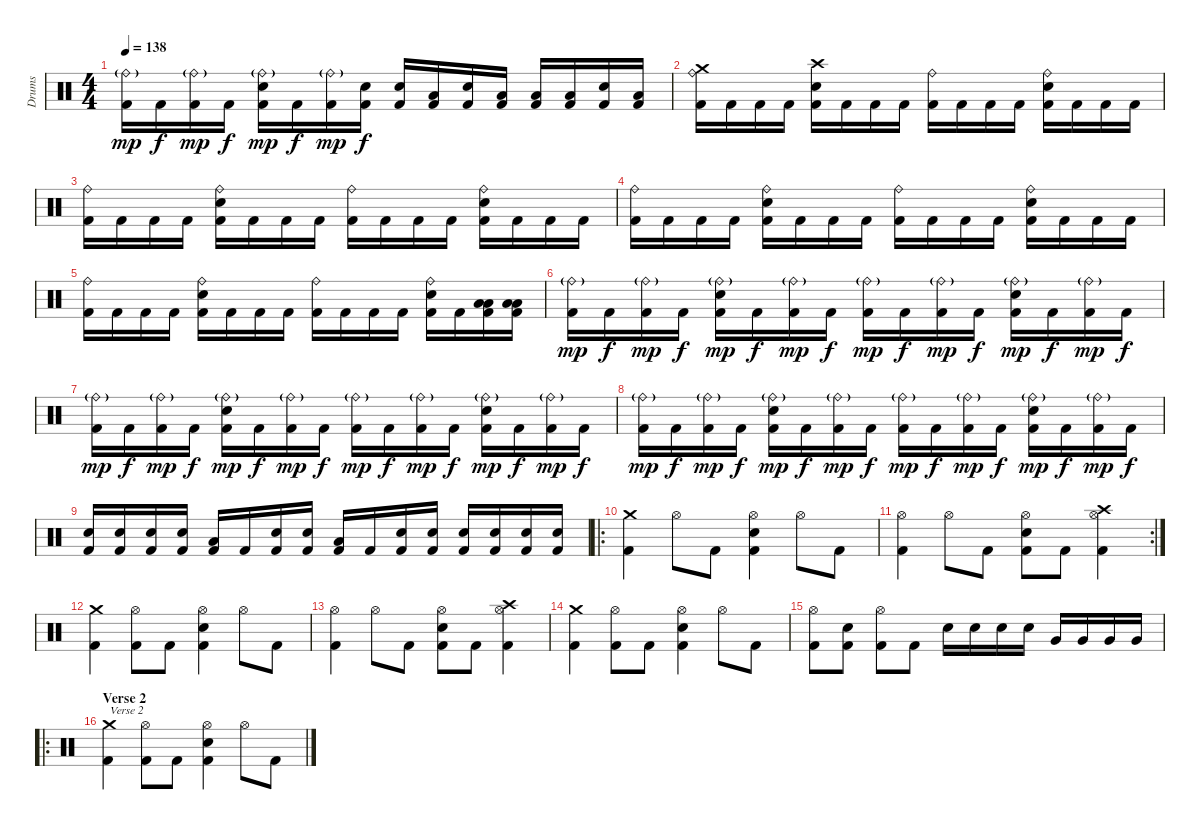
\track ("Drums" "Drums") {instrument percussion}
\staff {score}
\articulation defaults
\ts (4 4)
\tempo 138
\clef neutral
\ks c
("Ride (bell)"{g} "Kick (hit) 2").16{dy mp} "Kick (hit) 2".16{dy f} ("Ride (bell)"{g} "Kick (hit) 2").16{dy mp} "Kick (hit) 2".16{dy f} ("Ride (bell)"{g} "Electric Snare (hit)" "Kick (hit) 2").16{dy mp} "Kick (hit) 2".16{dy f} ("Ride (bell)"{g} "Kick (hit) 2").16{dy mp} ("Electric Snare (hit)" "Kick (hit) 2").16{dy f} ("Electric Snare (hit)" "Kick (hit) 2").16 ("Low Floor Tom (hit)" "Kick (hit) 2").16 ("Electric Snare (hit)" "Kick (hit) 2").16 ("Low Floor Tom (hit)" "Kick (hit) 2").16 ("Low Floor Tom (hit)" "Kick (hit) 2").16 ("Low Floor Tom (hit)" "Kick (hit) 2").16 ("Electric Snare (hit)" "Kick (hit) 2").16 ("Low Floor Tom (hit)" "Kick (hit) 2").16 |
("Crash medium (hit)" "Ride (bell)" "Kick (hit) 2").16 "Kick (hit) 2".16 "Kick (hit) 2".16 "Kick (hit) 2".16 ("Crash high (hit)" "Electric Snare (hit)" "Kick (hit) 2").16 "Kick (hit) 2".16 "Kick (hit) 2".16 "Kick (hit) 2".16 ("Ride (bell)" "Kick (hit) 2").16 "Kick (hit) 2".16 "Kick (hit) 2".16 "Kick (hit) 2".16 ("Ride (bell)" "Electric Snare (hit)" "Kick (hit) 2").16 "Kick (hit) 2".16 "Kick (hit) 2".16 "Kick (hit) 2".16 |
("Ride (bell)" "Kick (hit) 2").16 "Kick (hit) 2".16 "Kick (hit) 2".16 "Kick (hit) 2".16 ("Ride (bell)" "Electric Snare (hit)" "Kick (hit) 2").16 "Kick (hit) 2".16 "Kick (hit) 2".16 "Kick (hit) 2".16 ("Ride (bell)" "Kick (hit) 2").16 "Kick (hit) 2".16 "Kick (hit) 2".16 "Kick (hit) 2".16 ("Ride (bell)" "Electric Snare (hit)" "Kick (hit) 2").16 "Kick (hit) 2".16 "Kick (hit) 2".16 "Kick (hit) 2".16 |
("Ride (bell)" "Kick (hit) 2").16 "Kick (hit) 2".16 "Kick (hit) 2".16 "Kick (hit) 2".16 ("Ride (bell)" "Electric Snare (hit)" "Kick (hit) 2").16 "Kick (hit) 2".16 "Kick (hit) 2".16 "Kick (hit) 2".16 ("Ride (bell)" "Kick (hit) 2").16 "Kick (hit) 2".16 "Kick (hit) 2".16 "Kick (hit) 2".16 ("Ride (bell)" "Electric Snare (hit)" "Kick (hit) 2").16 "Kick (hit) 2".16 "Kick (hit) 2".16 "Kick (hit) 2".16 |
("Ride (bell)" "Kick (hit) 2").16 "Kick (hit) 2".16 "Kick (hit) 2".16 "Kick (hit) 2".16 ("Ride (bell)" "Electric Snare (hit)" "Kick (hit) 2").16 "Kick (hit) 2".16 "Kick (hit) 2".16 "Kick (hit) 2".16 ("Ride (bell)" "Kick (hit) 2").16 "Kick (hit) 2".16 "Kick (hit) 2".16 "Kick (hit) 2".16 ("Ride (bell)" "Electric Snare (hit)" "Kick (hit) 2").16 "Kick (hit) 2".16 ("Low Floor Tom (hit)" "Low Floor Tom (hit)" "Kick (hit) 2").16 ("Low Floor Tom (hit)" "Low Floor Tom (hit)" "Kick (hit) 2").16 |
("Ride (bell)"{g} "Kick (hit) 2").16{dy mp} "Kick (hit) 2".16{dy f} ("Ride (bell)"{g} "Kick (hit) 2").16{dy mp} "Kick (hit) 2".16{dy f} ("Ride (bell)"{g} "Electric Snare (hit)" "Kick (hit) 2").16{dy mp} "Kick (hit) 2".16{dy f} ("Ride (bell)"{g} "Kick (hit) 2").16{dy mp} "Kick (hit) 2".16{dy f} ("Ride (bell)"{g} "Kick (hit) 2").16{dy mp} "Kick (hit) 2".16{dy f} ("Ride (bell)"{g} "Kick (hit) 2").16{dy mp} "Kick (hit) 2".16{dy f} ("Ride (bell)"{g} "Electric Snare (hit)" "Kick (hit) 2").16{dy mp} "Kick (hit) 2".16{dy f} ("Ride (bell)"{g} "Kick (hit) 2").16{dy mp} "Kick (hit) 2".16{dy f} |
("Ride (bell)"{g} "Kick (hit) 2").16{dy mp} "Kick (hit) 2".16{dy f} ("Ride (bell)"{g} "Kick (hit) 2").16{dy mp} "Kick (hit) 2".16{dy f} ("Ride (bell)"{g} "Electric Snare (hit)" "Kick (hit) 2").16{dy mp} "Kick (hit) 2".16{dy f} ("Ride (bell)"{g} "Kick (hit) 2").16{dy mp} "Kick (hit) 2".16{dy f} ("Ride (bell)"{g} "Kick (hit) 2").16{dy mp} "Kick (hit) 2".16{dy f} ("Ride (bell)"{g} "Kick (hit) 2").16{dy mp} "Kick (hit) 2".16{dy f} ("Ride (bell)"{g} "Electric Snare (hit)" "Kick (hit) 2").16{dy mp} "Kick (hit) 2".16{dy f} ("Ride (bell)"{g} "Kick (hit) 2").16{dy mp} "Kick (hit) 2".16{dy f} |
("Ride (bell)"{g} "Kick (hit) 2").16{dy mp} "Kick (hit) 2".16{dy f} ("Ride (bell)"{g} "Kick (hit) 2").16{dy mp} "Kick (hit) 2".16{dy f} ("Ride (bell)"{g} "Electric Snare (hit)" "Kick (hit) 2").16{dy mp} "Kick (hit) 2".16{dy f} ("Ride (bell)"{g} "Kick (hit) 2").16{dy mp} "Kick (hit) 2".16{dy f} ("Ride (bell)"{g} "Kick (hit) 2").16{dy mp} "Kick (hit) 2".16{dy f} ("Ride (bell)"{g} "Kick (hit) 2").16{dy mp} "Kick (hit) 2".16{dy f} ("Ride (bell)"{g} "Electric Snare (hit)" "Kick (hit) 2").16{dy mp} "Kick (hit) 2".16{dy f} ("Ride (bell)"{g} "Kick (hit) 2").16{dy mp} "Kick (hit) 2".16{dy f} |
("Electric Snare (hit)" "Kick (hit) 2").16 ("Electric Snare (hit)" "Kick (hit) 2").16 ("Electric Snare (hit)" "Kick (hit) 2").16 ("Electric Snare (hit)" "Kick (hit) 2").16 ("Low Floor Tom (hit)" "Kick (hit) 2").16 "Kick (hit) 2".16 ("Electric Snare (hit)" "Kick (hit) 2").16 ("Electric Snare (hit)" "Kick (hit) 2").16 ("Low Floor Tom (hit)" "Kick (hit) 2").16 "Kick (hit) 2".16 ("Electric Snare (hit)" "Kick (hit) 2").16 ("Electric Snare (hit)" "Kick (hit) 2").16 ("Electric Snare (hit)" "Kick (hit) 2").16 ("Electric Snare (hit)" "Kick (hit) 2").16 ("Electric Snare (hit)" "Kick (hit) 2").16 ("Electric Snare (hit)" "Kick (hit) 2").16 |
\ro
("Crash medium (hit)" "Kick (hit) 2").4 "Hi-Hat (open)".8 "Kick (hit) 2".8 ("Hi-Hat (open)" "Electric Snare (hit)" "Kick (hit) 2").4 "Hi-Hat (open)".8 "Kick (hit) 2".8 |
\rc 2
("Hi-Hat (open)" "Kick (hit) 2").4 "Hi-Hat (open)".8 "Kick (hit) 2".8 ("Hi-Hat (open)" "Electric Snare (hit)" "Kick (hit) 2").8 "Kick (hit) 2".8 ("Crash high (hit)" "Hi-Hat (open)" "Kick (hit) 2").4 |
("Crash medium (hit)" "Kick (hit) 2").4 ("Hi-Hat (open)" "Kick (hit) 2").8 "Kick (hit) 2".8 ("Hi-Hat (open)" "Electric Snare (hit)" "Kick (hit) 2").4 "Hi-Hat (open)".8 "Kick (hit) 2".8 |
("Hi-Hat (open)" "Kick (hit) 2").4 "Hi-Hat (open)".8 "Kick (hit) 2".8 ("Hi-Hat (open)" "Electric Snare (hit)" "Kick (hit) 2").8 "Kick (hit) 2".8 ("Crash high (hit)" "Hi-Hat (open)" "Kick (hit) 2").4 |
("Crash medium (hit)" "Kick (hit) 2").4 ("Hi-Hat (open)" "Kick (hit) 2").8 "Kick (hit) 2".8 ("Hi-Hat (open)" "Electric Snare (hit)" "Kick (hit) 2").4 "Hi-Hat (open)".8 "Kick (hit) 2".8 |
("Hi-Hat (open)" "Kick (hit) 2").8 ("Electric Snare (hit)" "Kick (hit) 2").8 ("Hi-Hat (open)" "Kick (hit) 2").8 "Kick (hit) 2".8 "Electric Snare (hit)".16 "Electric Snare (hit)".16 "Electric Snare (hit)".16 "Electric Snare (hit)".16 "Very Low Tom (hit)".16 "Very Low Tom (hit)".16 "Very Low Tom (hit)".16 "Very Low Tom (hit)".16 |
\ro
\section ("" "Verse 2")
("Crash medium (hit)" "Kick (hit) 2").4{txt "Verse 2"} ("Hi-Hat (open)" "Kick (hit) 2").8 "Kick (hit) 2".8 ("Hi-Hat (open)" "Electric Snare (hit)" "Kick (hit) 2").4 "Hi-Hat (open)".8 "Kick (hit) 2".8
